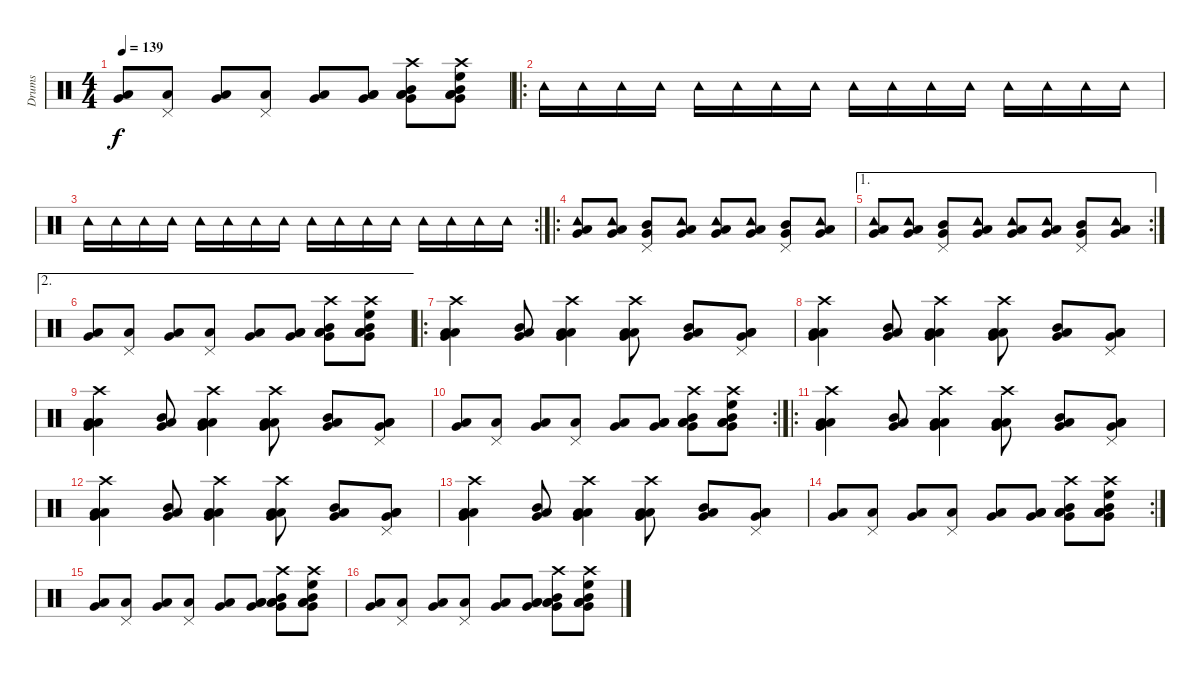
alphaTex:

\track ("Drums" "Drums") {instrument percussion}
\staff {score}
\articulation defaults
\ts (4 4)
\tempo 139
\clef neutral
\ks c
("Low Tom (hit)" "Very Low Tom (hit)").8{dy f} ("Low Tom (hit)" "Pedal Hi-Hat (hit)").8 ("Low Tom (hit)" "Very Low Tom (hit)").8 ("Low Tom (hit)" "Pedal Hi-Hat (hit)").8 ("Low Tom (hit)" "Very Low Tom (hit)").8 ("Low Tom (hit)" "Very Low Tom (hit)" "Low Floor Tom (hit)").8 ("Low Tom (hit)" "Very Low Tom (hit)" "Low Floor Tom (hit)" "Mid Tom (hit)" "Crash high (hit)").8 ("Low Tom (hit)" "Very Low Tom (hit)" "Low Floor Tom (hit)" "Mid Tom (hit)" "Crash high (hit)" "High Floor Tom (hit)").8 |
\ro "Tambourine (hit)".16 "Tambourine (hit)".16 "Tambourine (hit)".16 "Tambourine (hit)".16 "Tambourine (hit)".16 "Tambourine (hit)".16 "Tambourine (hit)".16 "Tambourine (hit)".16 "Tambourine (hit)".16 "Tambourine (hit)".16 "Tambourine (hit)".16 "Tambourine (hit)".16 "Tambourine (hit)".16 "Tambourine (hit)".16 "Tambourine (hit)".16 "Tambourine (hit)".16
|
\rc 2 "Tambourine (hit)".16 "Tambourine (hit)".16 "Tambourine (hit)".16 "Tambourine (hit)".16 "Tambourine (hit)".16 "Tambourine (hit)".16 "Tambourine (hit)".16 "Tambourine (hit)".16 "Tambourine (hit)".16 "Tambourine (hit)".16 "Tambourine (hit)".16 "Tambourine (hit)".16 "Tambourine (hit)".16 "Tambourine (hit)".16 "Tambourine (hit)".16 "Tambourine (hit)".16
|
\ro
("Very Low Tom (hit)" "Low Floor Tom (hit)" "Tambourine (hit)").8 ("Very Low Tom (hit)" "Low Floor Tom (hit)" "Tambourine (hit)").8 ("Mid Tom (hit)" "Pedal Hi-Hat (hit)" "Very Low Tom (hit)").8 ("Very Low Tom (hit)" "Low Floor Tom (hit)" "Tambourine (hit)").8 ("Very Low Tom (hit)" "Low Floor Tom (hit)" "Tambourine (hit)").8 ("Very Low Tom (hit)" "Low Floor Tom (hit)" "Tambourine (hit)").8 ("Mid Tom (hit)" "Pedal Hi-Hat (hit)" "Very Low Tom (hit)").8 ("Very Low Tom (hit)" "Low Floor Tom (hit)" "Tambourine (hit)").8 |
\ae 1
\rc 2
("Very Low Tom (hit)" "Low Floor Tom (hit)" "Tambourine (hit)").8 ("Very Low Tom (hit)" "Low Floor Tom (hit)" "Tambourine (hit)").8 ("Mid Tom (hit)" "Pedal Hi-Hat (hit)" "Very Low Tom (hit)").8 ("Very Low Tom (hit)" "Low Floor Tom (hit)" "Tambourine (hit)").8 ("Very Low Tom (hit)" "Low Floor Tom (hit)" "Tambourine (hit)").8 ("Very Low Tom (hit)" "Low Floor Tom (hit)" "Tambourine (hit)").8 ("Mid Tom (hit)" "Pedal Hi-Hat (hit)" "Very Low Tom (hit)").8 ("Very Low Tom (hit)" "Low Floor Tom (hit)" "Tambourine (hit)").8 |
\ae 2
("Low Tom (hit)" "Very Low Tom (hit)").8 ("Low Tom (hit)" "Pedal Hi-Hat (hit)").8 ("Low Tom (hit)" "Very Low Tom (hit)").8 ("Low Tom (hit)" "Pedal Hi-Hat (hit)").8 ("Low Tom (hit)" "Very Low Tom (hit)").8 ("Low Tom (hit)" "Very Low Tom (hit)" "Low Floor Tom (hit)").8 ("Low Tom (hit)" "Very Low Tom (hit)" "Low Floor Tom (hit)" "Mid Tom (hit)" "Crash high (hit)").8 ("Low Tom (hit)" "Very Low Tom (hit)" "Low Floor Tom (hit)" "Mid Tom (hit)" "Crash high (hit)" "High Floor Tom (hit)").8 |
\ro
("Low Tom (hit)" "Very Low Tom (hit)" "Low Floor Tom (hit)" "Crash high (hit)").4 ("Mid Tom (hit)" "Low Tom (hit)" "Very Low Tom (hit)").8 ("Low Tom (hit)" "Very Low Tom (hit)" "Low Floor Tom (hit)" "Crash high (hit)").4 ("Low Tom (hit)" "Very Low Tom (hit)" "Low Floor Tom (hit)" "Crash high (hit)").8 ("Mid Tom (hit)" "Low Tom (hit)" "Very Low Tom (hit)").8 ("Low Tom (hit)" "Very Low Tom (hit)" "Low Floor Tom (hit)" "Pedal Hi-Hat (hit)").8 |
("Low Tom (hit)" "Very Low Tom (hit)" "Low Floor Tom (hit)" "Crash high (hit)").4 ("Mid Tom (hit)" "Low Tom (hit)" "Very Low Tom (hit)").8 ("Low Tom (hit)" "Very Low Tom (hit)" "Low Floor Tom (hit)" "Crash high (hit)").4 ("Low Tom (hit)" "Very Low Tom (hit)" "Low Floor Tom (hit)" "Crash high (hit)").8 ("Mid Tom (hit)" "Low Tom (hit)" "Very Low Tom (hit)").8 ("Low Tom (hit)" "Very Low Tom (hit)" "Low Floor Tom (hit)" "Pedal Hi-Hat (hit)").8 |
("Low Tom (hit)" "Very Low Tom (hit)" "Low Floor Tom (hit)" "Crash high (hit)").4 ("Mid Tom (hit)" "Low Tom (hit)" "Very Low Tom (hit)").8 ("Low Tom (hit)" "Very Low Tom (hit)" "Low Floor Tom (hit)" "Crash high (hit)").4 ("Low Tom (hit)" "Very Low Tom (hit)" "Low Floor Tom (hit)" "Crash high (hit)").8 ("Mid Tom (hit)" "Low Tom (hit)" "Very Low Tom (hit)").8 ("Low Tom (hit)" "Very Low Tom (hit)" "Low Floor Tom (hit)" "Pedal Hi-Hat (hit)").8 |
\rc 2
("Low Tom (hit)" "Very Low Tom (hit)").8 ("Low Tom (hit)" "Pedal Hi-Hat (hit)").8 ("Low Tom (hit)" "Very Low Tom (hit)").8 ("Low Tom (hit)" "Pedal Hi-Hat (hit)").8 ("Low Tom (hit)" "Very Low Tom (hit)").8 ("Low Tom (hit)" "Very Low Tom (hit)" "Low Floor Tom (hit)").8 ("Low Tom (hit)" "Very Low Tom (hit)" "Low Floor Tom (hit)" "Mid Tom (hit)" "Crash high (hit)").8 ("Low Tom (hit)" "Very Low Tom (hit)" "Low Floor Tom (hit)" "Mid Tom (hit)" "Crash high (hit)" "High Floor Tom (hit)").8 |
\ro
("Low Tom (hit)" "Very Low Tom (hit)" "Low Floor Tom (hit)" "Crash high (hit)").4 ("Mid Tom (hit)" "Low Tom (hit)" "Very Low Tom (hit)").8 ("Low Tom (hit)" "Very Low Tom (hit)" "Low Floor Tom (hit)" "Crash high (hit)").4 ("Low Tom (hit)" "Very Low Tom (hit)" "Low Floor Tom (hit)" "Crash high (hit)").8 ("Mid Tom (hit)" "Low Tom (hit)" "Very Low Tom (hit)").8 ("Low Tom (hit)" "Very Low Tom (hit)" "Low Floor Tom (hit)" "Pedal Hi-Hat (hit)").8 |
("Low Tom (hit)" "Very Low Tom (hit)" "Low Floor Tom (hit)" "Crash high (hit)").4 ("Mid Tom (hit)" "Low Tom (hit)" "Very Low Tom (hit)").8 ("Low Tom (hit)" "Very Low Tom (hit)" "Low Floor Tom (hit)" "Crash high (hit)").4 ("Low Tom (hit)" "Very Low Tom (hit)" "Low Floor Tom (hit)" "Crash high (hit)").8 ("Mid Tom (hit)" "Low Tom (hit)" "Very Low Tom (hit)").8 ("Low Tom (hit)" "Very Low Tom (hit)" "Low Floor Tom (hit)" "Pedal Hi-Hat (hit)").8 |
("Low Tom (hit)" "Very Low Tom (hit)" "Low Floor Tom (hit)" "Crash high (hit)").4 ("Mid Tom (hit)" "Low Tom (hit)" "Very Low Tom (hit)").8 ("Low Tom (hit)" "Very Low Tom (hit)" "Low Floor Tom (hit)" "Crash high (hit)").4 ("Low Tom (hit)" "Very Low Tom (hit)" "Low Floor Tom (hit)" "Crash high (hit)").8 ("Mid Tom (hit)" "Low Tom (hit)" "Very Low Tom (hit)").8 ("Low Tom (hit)" "Very Low Tom (hit)" "Low Floor Tom (hit)" "Pedal Hi-Hat (hit)").8 |
\rc 2
("Low Tom (hit)" "Very Low Tom (hit)").8 ("Low Tom (hit)" "Pedal Hi-Hat (hit)").8 ("Low Tom (hit)" "Very Low Tom (hit)").8 ("Low Tom (hit)" "Pedal Hi-Hat (hit)").8 ("Low Tom (hit)" "Very Low Tom (hit)").8 ("Low Tom (hit)" "Very Low Tom (hit)" "Low Floor Tom (hit)").8 ("Low Tom (hit)" "Very Low Tom (hit)" "Low Floor Tom (hit)" "Mid Tom (hit)" "Crash high (hit)").8 ("Low Tom (hit)" "Very Low Tom (hit)" "Low Floor Tom (hit)" "Mid Tom (hit)" "Crash high (hit)" "High Floor Tom (hit)").8 |
("Low Tom (hit)" "Very Low Tom (hit)").8 ("Low Tom (hit)" "Pedal Hi-Hat (hit)").8 ("Low Tom (hit)" "Very Low Tom (hit)").8 ("Low Tom (hit)" "Pedal Hi-Hat (hit)").8 ("Low Tom (hit)" "Very Low Tom (hit)").8 ("Low Tom (hit)" "Very Low Tom (hit)" "Low Floor Tom (hit)").8 ("Low Tom (hit)" "Very Low Tom (hit)" "Low Floor Tom (hit)" "Mid Tom (hit)" "Crash high (hit)").8 ("Low Tom (hit)" "Very Low Tom (hit)" "Low Floor Tom (hit)" "Mid Tom (hit)" "Crash high (hit)" "High Floor Tom (hit)").8 |
("Low Tom (hit)" "Very Low Tom (hit)").8 ("Low Tom (hit)" "Pedal Hi-Hat (hit)").8 ("Low Tom (hit)" "Very Low Tom (hit)").8 ("Low Tom (hit)" "Pedal Hi-Hat (hit)").8 ("Low Tom (hit)" "Very Low Tom (hit)").8 ("Low Tom (hit)" "Very Low Tom (hit)" "Low Floor Tom (hit)").8 ("Low Tom (hit)" "Very Low Tom (hit)" "Low Floor Tom (hit)" "Mid Tom (hit)" "Crash high (hit)").8 ("Low Tom (hit)" "Very Low Tom (hit)" "Low Floor Tom (hit)" "Mid Tom (hit)" "Crash high (hit)" "High Floor Tom (hit)").8
